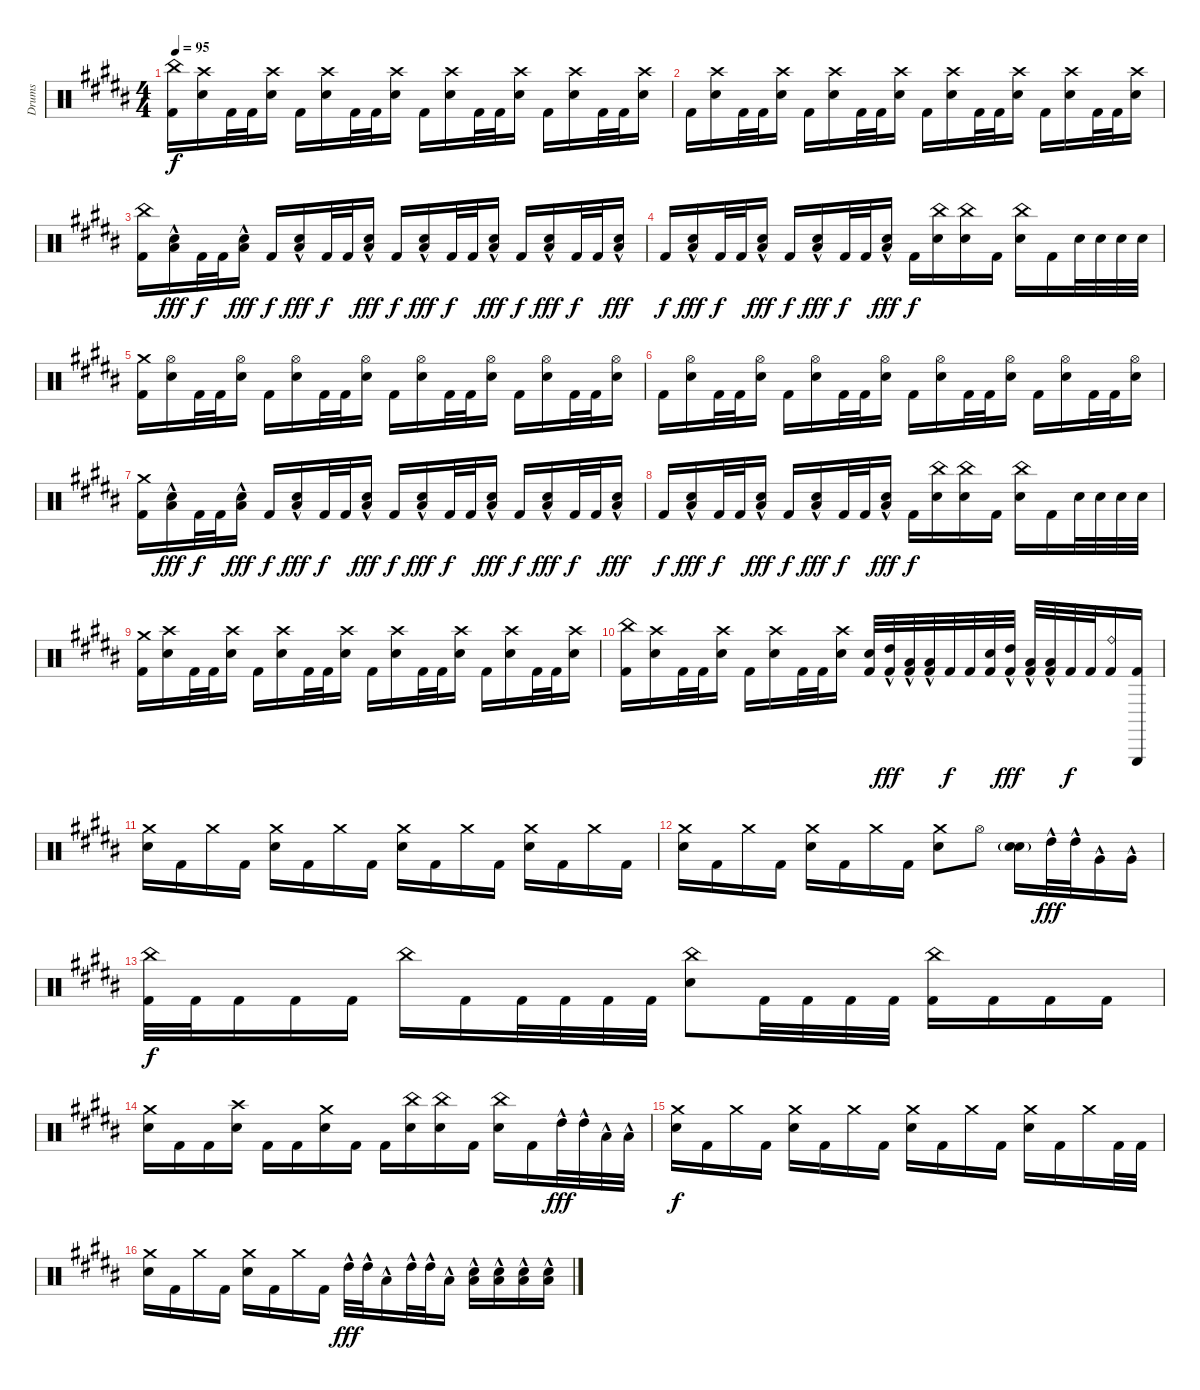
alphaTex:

\track ("Drums" "Drums") {instrument percussion}
\staff {score}
\articulation defaults
\ts (4 4)
\tempo 95
\clef neutral
\ks b
("China (hit)" "Kick (hit) 2").16{dy f} ("Crash high (hit)" "Electric Snare (hit)").16 "Kick (hit) 2".32 "Kick (hit) 2".32 ("Crash high (hit)" "Electric Snare (hit)").16 "Kick (hit) 2".16 ("Crash high (hit)" "Electric Snare (hit)").16 "Kick (hit) 2".32 "Kick (hit) 2".32 ("Crash high (hit)" "Electric Snare (hit)").16 "Kick (hit) 2".16 ("Crash high (hit)" "Electric Snare (hit)").16 "Kick (hit) 2".32 "Kick (hit) 2".32 ("Crash high (hit)" "Electric Snare (hit)").16 "Kick (hit) 2".16 ("Crash high (hit)" "Electric Snare (hit)").16 "Kick (hit) 2".32 "Kick (hit) 2".32 ("Crash high (hit)" "Electric Snare (hit)").16 |
"Kick (hit) 2".16 ("Crash high (hit)" "Electric Snare (hit)").16 "Kick (hit) 2".32 "Kick (hit) 2".32 ("Crash high (hit)" "Electric Snare (hit)").16 "Kick (hit) 2".16 ("Crash high (hit)" "Electric Snare (hit)").16 "Kick (hit) 2".32 "Kick (hit) 2".32 ("Crash high (hit)" "Electric Snare (hit)").16 "Kick (hit) 2".16 ("Crash high (hit)" "Electric Snare (hit)").16 "Kick (hit) 2".32 "Kick (hit) 2".32 ("Crash high (hit)" "Electric Snare (hit)").16 "Kick (hit) 2".16 ("Crash high (hit)" "Electric Snare (hit)").16 "Kick (hit) 2".32 "Kick (hit) 2".32 ("Crash high (hit)" "Electric Snare (hit)").16 |
("China (hit)" "Kick (hit) 2").16 ("Low Tom (hit)"{hac} "Electric Snare (hit)").16{dy fff} "Kick (hit) 2".32{dy f} "Kick (hit) 2".32 ("Low Tom (hit)"{hac} "Electric Snare (hit)").16{dy fff} "Kick (hit) 2".16{dy f} ("Low Tom (hit)"{hac} "Electric Snare (hit)").16{dy fff} "Kick (hit) 2".32{dy f} "Kick (hit) 2".32 ("Low Tom (hit)"{hac} "Electric Snare (hit)").16{dy fff} "Kick (hit) 2".16{dy f} ("Low Tom (hit)"{hac} "Electric Snare (hit)").16{dy fff} "Kick (hit) 2".32{dy f} "Kick (hit) 2".32 ("Low Tom (hit)"{hac} "Electric Snare (hit)").16{dy fff} "Kick (hit) 2".16{dy f} ("Low Tom (hit)"{hac} "Electric Snare (hit)").16{dy fff} "Kick (hit) 2".32{dy f} "Kick (hit) 2".32 ("Low Tom (hit)"{hac} "Electric Snare (hit)").16{dy fff} |
"Kick (hit) 2".16{dy f} ("Low Tom (hit)"{hac} "Electric Snare (hit)").16{dy fff} "Kick (hit) 2".32{dy f} "Kick (hit) 2".32 ("Low Tom (hit)"{hac} "Electric Snare (hit)").16{dy fff} "Kick (hit) 2".16{dy f} ("Low Tom (hit)"{hac} "Electric Snare (hit)").16{dy fff} "Kick (hit) 2".32{dy f} "Kick (hit) 2".32 ("Low Tom (hit)"{hac} "Electric Snare (hit)").16{dy fff} "Kick (hit) 2".16{dy f} ("China (hit)" "Electric Snare (hit)").16 ("China (hit)" "Electric Snare (hit)").16 "Kick (hit) 2".16 ("China (hit)" "Electric Snare (hit)").16 "Kick (hit) 2".16 "Electric Snare (hit)".32 "Electric Snare (hit)".32 "Electric Snare (hit)".32 "Electric Snare (hit)".32 |
("Crash medium (hit)" "Kick (hit) 2").16 ("Hi-Hat (open)" "Electric Snare (hit)").16 "Kick (hit) 2".32 "Kick (hit) 2".32 ("Hi-Hat (open)" "Electric Snare (hit)").16 "Kick (hit) 2".16 ("Hi-Hat (open)" "Electric Snare (hit)").16 "Kick (hit) 2".32 "Kick (hit) 2".32 ("Hi-Hat (open)" "Electric Snare (hit)").16 "Kick (hit) 2".16 ("Hi-Hat (open)" "Electric Snare (hit)").16 "Kick (hit) 2".32 "Kick (hit) 2".32 ("Hi-Hat (open)" "Electric Snare (hit)").16 "Kick (hit) 2".16 ("Hi-Hat (open)" "Electric Snare (hit)").16 "Kick (hit) 2".32 "Kick (hit) 2".32 ("Hi-Hat (open)" "Electric Snare (hit)").16 |
"Kick (hit) 2".16 ("Hi-Hat (open)" "Electric Snare (hit)").16 "Kick (hit) 2".32 "Kick (hit) 2".32 ("Hi-Hat (open)" "Electric Snare (hit)").16 "Kick (hit) 2".16 ("Hi-Hat (open)" "Electric Snare (hit)").16 "Kick (hit) 2".32 "Kick (hit) 2".32 ("Hi-Hat (open)" "Electric Snare (hit)").16 "Kick (hit) 2".16 ("Hi-Hat (open)" "Electric Snare (hit)").16 "Kick (hit) 2".32 "Kick (hit) 2".32 ("Hi-Hat (open)" "Electric Snare (hit)").16 "Kick (hit) 2".16 ("Hi-Hat (open)" "Electric Snare (hit)").16 "Kick (hit) 2".32 "Kick (hit) 2".32 ("Hi-Hat (open)" "Electric Snare (hit)").16 |
("Crash medium (hit)" "Kick (hit) 2").16 ("Low Tom (hit)"{hac} "Electric Snare (hit)").16{dy fff} "Kick (hit) 2".32{dy f} "Kick (hit) 2".32 ("Low Tom (hit)"{hac} "Electric Snare (hit)").16{dy fff} "Kick (hit) 2".16{dy f} ("Low Tom (hit)"{hac} "Electric Snare (hit)").16{dy fff} "Kick (hit) 2".32{dy f} "Kick (hit) 2".32 ("Low Tom (hit)"{hac} "Electric Snare (hit)").16{dy fff} "Kick (hit) 2".16{dy f} ("Low Tom (hit)"{hac} "Electric Snare (hit)").16{dy fff} "Kick (hit) 2".32{dy f} "Kick (hit) 2".32 ("Low Tom (hit)"{hac} "Electric Snare (hit)").16{dy fff} "Kick (hit) 2".16{dy f} ("Low Tom (hit)"{hac} "Electric Snare (hit)").16{dy fff} "Kick (hit) 2".32{dy f} "Kick (hit) 2".32 ("Low Tom (hit)"{hac} "Electric Snare (hit)").16{dy fff} |
"Kick (hit) 2".16{dy f} ("Low Tom (hit)"{hac} "Electric Snare (hit)").16{dy fff} "Kick (hit) 2".32{dy f} "Kick (hit) 2".32 ("Low Tom (hit)"{hac} "Electric Snare (hit)").16{dy fff} "Kick (hit) 2".16{dy f} ("Low Tom (hit)"{hac} "Electric Snare (hit)").16{dy fff} "Kick (hit) 2".32{dy f} "Kick (hit) 2".32 ("Low Tom (hit)"{hac} "Electric Snare (hit)").16{dy fff} "Kick (hit) 2".16{dy f} ("China (hit)" "Electric Snare (hit)").16 ("China (hit)" "Electric Snare (hit)").16 "Kick (hit) 2".16 ("China (hit)" "Electric Snare (hit)").16 "Kick (hit) 2".16 "Electric Snare (hit)".32 "Electric Snare (hit)".32 "Electric Snare (hit)".32 "Electric Snare (hit)".32 |
("Crash medium (hit)" "Kick (hit) 2").16 ("Crash high (hit)" "Electric Snare (hit)").16 "Kick (hit) 2".32 "Kick (hit) 2".32 ("Crash high (hit)" "Electric Snare (hit)").16 "Kick (hit) 2".16 ("Crash high (hit)" "Electric Snare (hit)").16 "Kick (hit) 2".32 "Kick (hit) 2".32 ("Crash high (hit)" "Electric Snare (hit)").16 "Kick (hit) 2".16 ("Crash high (hit)" "Electric Snare (hit)").16 "Kick (hit) 2".32 "Kick (hit) 2".32 ("Crash high (hit)" "Electric Snare (hit)").16 "Kick (hit) 2".16 ("Crash high (hit)" "Electric Snare (hit)").16 "Kick (hit) 2".32 "Kick (hit) 2".32 ("Crash high (hit)" "Electric Snare (hit)").16 |
("China (hit)" "Kick (hit) 2").16 ("Crash high (hit)" "Electric Snare (hit)").16 "Kick (hit) 2".32 "Kick (hit) 2".32 ("Crash high (hit)" "Electric Snare (hit)").16 "Kick (hit) 2".16 ("Crash high (hit)" "Electric Snare (hit)").16 "Kick (hit) 2".32 "Kick (hit) 2".32 ("Crash high (hit)" "Electric Snare (hit)").16 ("Electric Snare (hit)" "Kick (hit) 2").32 ("High Tom (hit)"{hac} "Kick (hit) 2").32{dy fff} ("Low Tom (hit)"{hac} "Kick (hit) 2").32 ("Low Tom (hit)"{hac} "Kick (hit) 2").32 "Kick (hit) 2".32{dy f} "Kick (hit) 2".32 ("Electric Snare (hit)" "Kick (hit) 2").32 ("High Tom (hit)"{hac} "Kick (hit) 2").32{dy fff} ("Low Tom (hit)"{hac} "Kick (hit) 2").32 ("Low Tom (hit)"{hac} "Kick (hit) 2").32 "Kick (hit) 2".32{dy f} "Kick (hit) 2".32 ("Ride (bell)" "Kick (hit) 2").16 ("Triangle (hit)" "Kick (hit) 2").16 |
("Crash medium (hit)" "Electric Snare (hit)").16 "Kick (hit) 2".16 "Crash medium (hit)".16 "Kick (hit) 2".16 ("Crash medium (hit)" "Electric Snare (hit)").16 "Kick (hit) 2".16 "Crash medium (hit)".16 "Kick (hit) 2".16 ("Crash medium (hit)" "Electric Snare (hit)").16 "Kick (hit) 2".16 "Crash medium (hit)".16 "Kick (hit) 2".16 ("Crash medium (hit)" "Electric Snare (hit)").16 "Kick (hit) 2".16 "Crash medium (hit)".16 "Kick (hit) 2".16 |
("Crash medium (hit)" "Electric Snare (hit)").16 "Kick (hit) 2".16 "Crash medium (hit)".16 "Kick (hit) 2".16 ("Crash medium (hit)" "Electric Snare (hit)").16 "Kick (hit) 2".16 "Crash medium (hit)".16 "Kick (hit) 2".16 ("Crash medium (hit)" "Electric Snare (hit)").8 "Hi-Hat (open)".8 ("Electric Snare (hit)"{g} "Electric Snare (hit)").16 "High Tom (hit)"{hac}.32{dy fff} "High Tom (hit)"{hac}.32 "Very Low Tom (hit)"{hac}.16 "Very Low Tom (hit)"{hac}.16 |
("China (hit)" "Kick (hit) 2").32{dy f} "Kick (hit) 2".32 "Kick (hit) 2".16 "Kick (hit) 2".16 "Kick (hit) 2".16 "China (hit)".16 "Kick (hit) 2".16 "Kick (hit) 2".32 "Kick (hit) 2".32 "Kick (hit) 2".32 "Kick (hit) 2".32 ("China (hit)" "Electric Snare (hit)").8 "Kick (hit) 2".32 "Kick (hit) 2".32 "Kick (hit) 2".32 "Kick (hit) 2".32 ("China (hit)" "Kick (hit) 2").16 "Kick (hit) 2".16 "Kick (hit) 2".16 "Kick (hit) 2".16 |
("Crash medium (hit)" "Electric Snare (hit)").16 "Kick (hit) 2".16 "Kick (hit) 2".16 ("Crash high (hit)" "Electric Snare (hit)").16 "Kick (hit) 2".16 "Kick (hit) 2".16 ("Crash medium (hit)" "Electric Snare (hit)").16 "Kick (hit) 2".16 "Kick (hit) 2".16 ("China (hit)" "Electric Snare (hit)").16 ("China (hit)" "Electric Snare (hit)").16 "Kick (hit) 2".16 ("China (hit)" "Electric Snare (hit)").16 "Kick (hit) 2".16 "High Tom (hit)"{hac}.32{dy fff} "High Tom (hit)"{hac}.32 "Low Tom (hit)"{hac}.32 "Low Tom (hit)"{hac}.32 |
("Crash medium (hit)" "Electric Snare (hit)").16{dy f} "Kick (hit) 2".16 "Crash medium (hit)".16 "Kick (hit) 2".16 ("Crash medium (hit)" "Electric Snare (hit)").16 "Kick (hit) 2".16 "Crash medium (hit)".16 "Kick (hit) 2".16 ("Crash medium (hit)" "Electric Snare (hit)").16 "Kick (hit) 2".16 "Crash medium (hit)".16 "Kick (hit) 2".16 ("Crash medium (hit)" "Electric Snare (hit)").16 "Kick (hit) 2".16 "Crash medium (hit)".16 "Kick (hit) 2".32 "Kick (hit) 2".32 |
("Crash medium (hit)" "Electric Snare (hit)").16 "Kick (hit) 2".16 "Crash medium (hit)".16 "Kick (hit) 2".16 ("Crash medium (hit)" "Electric Snare (hit)").16 "Kick (hit) 2".16 "Crash medium (hit)".16 "Kick (hit) 2".16 "High Tom (hit)"{hac}.32{dy fff} "High Tom (hit)"{hac}.32 "Low Tom (hit)"{hac}.16 "High Tom (hit)"{hac}.32 "High Tom (hit)"{hac}.32 "Low Tom (hit)"{hac}.16 ("Low Tom (hit)"{hac} "Electric Snare (hit)").16 ("Low Tom (hit)"{hac} "Electric Snare (hit)").16 ("Low Tom (hit)"{hac} "Electric Snare (hit)").16 ("Low Tom (hit)"{hac} "Electric Snare (hit)").16
